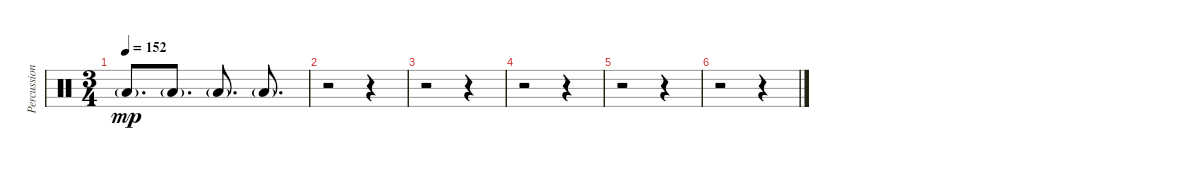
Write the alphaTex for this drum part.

\track ("Percussion" "Percussion") {instrument percussion}
\staff {score}
\articulation defaults
\ts (3 4)
\tempo 152
\clef neutral
\ks c "Low Floor Tom (hit)"{g}.8{d dy mp} "Low Floor Tom (hit)"{g}.8{d} "Low Floor Tom (hit)"{g}.8{d} "Low Floor Tom (hit)"{g}.8{d}
|
r.2 r.4 |
r.2 r.4 |
r.2 r.4 |
r.2 r.4 |
r.2 r.4
